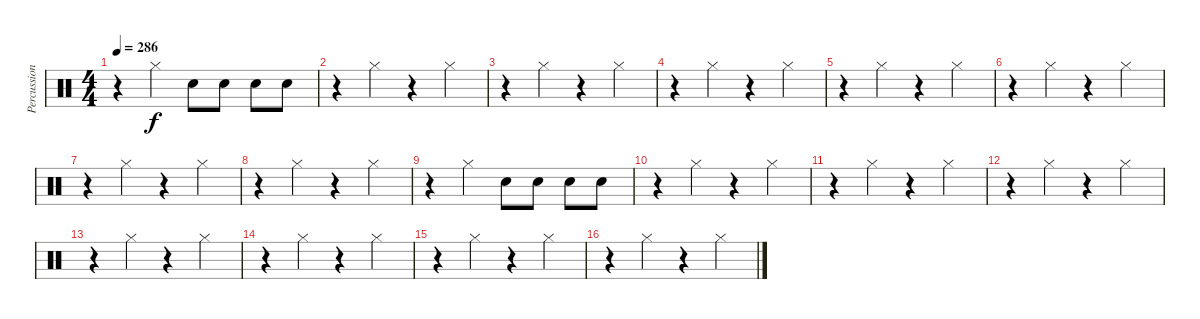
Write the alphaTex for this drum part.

\track ("Percussions" "Percussion") {instrument percussion}
\staff {score}
\articulation defaults
\ts (4 4)
\tempo 286
\clef neutral
\ks c
r.4{dy f} "Hi-Hat (closed)".4 "Electric Snare (hit)".8 "Electric Snare (hit)".8 "Electric Snare (hit)".8 "Electric Snare (hit)".8 |
r.4 "Hi-Hat (closed)".4 r.4 "Hi-Hat (closed)".4 |
r.4 "Hi-Hat (closed)".4 r.4 "Hi-Hat (closed)".4 |
r.4 "Hi-Hat (closed)".4 r.4 "Hi-Hat (closed)".4 |
r.4 "Hi-Hat (closed)".4 r.4 "Hi-Hat (closed)".4 |
r.4 "Hi-Hat (closed)".4 r.4 "Hi-Hat (closed)".4 |
r.4 "Hi-Hat (closed)".4 r.4 "Hi-Hat (closed)".4 |
r.4 "Hi-Hat (closed)".4 r.4 "Hi-Hat (closed)".4 |
r.4 "Hi-Hat (closed)".4 "Electric Snare (hit)".8 "Electric Snare (hit)".8 "Electric Snare (hit)".8 "Electric Snare (hit)".8 |
r.4 "Hi-Hat (closed)".4 r.4 "Hi-Hat (closed)".4 |
r.4 "Hi-Hat (closed)".4 r.4 "Hi-Hat (closed)".4 |
r.4 "Hi-Hat (closed)".4 r.4 "Hi-Hat (closed)".4 |
r.4 "Hi-Hat (closed)".4 r.4 "Hi-Hat (closed)".4 |
r.4 "Hi-Hat (closed)".4 r.4 "Hi-Hat (closed)".4 |
r.4 "Hi-Hat (closed)".4 r.4 "Hi-Hat (closed)".4 |
r.4 "Hi-Hat (closed)".4 r.4 "Hi-Hat (closed)".4
